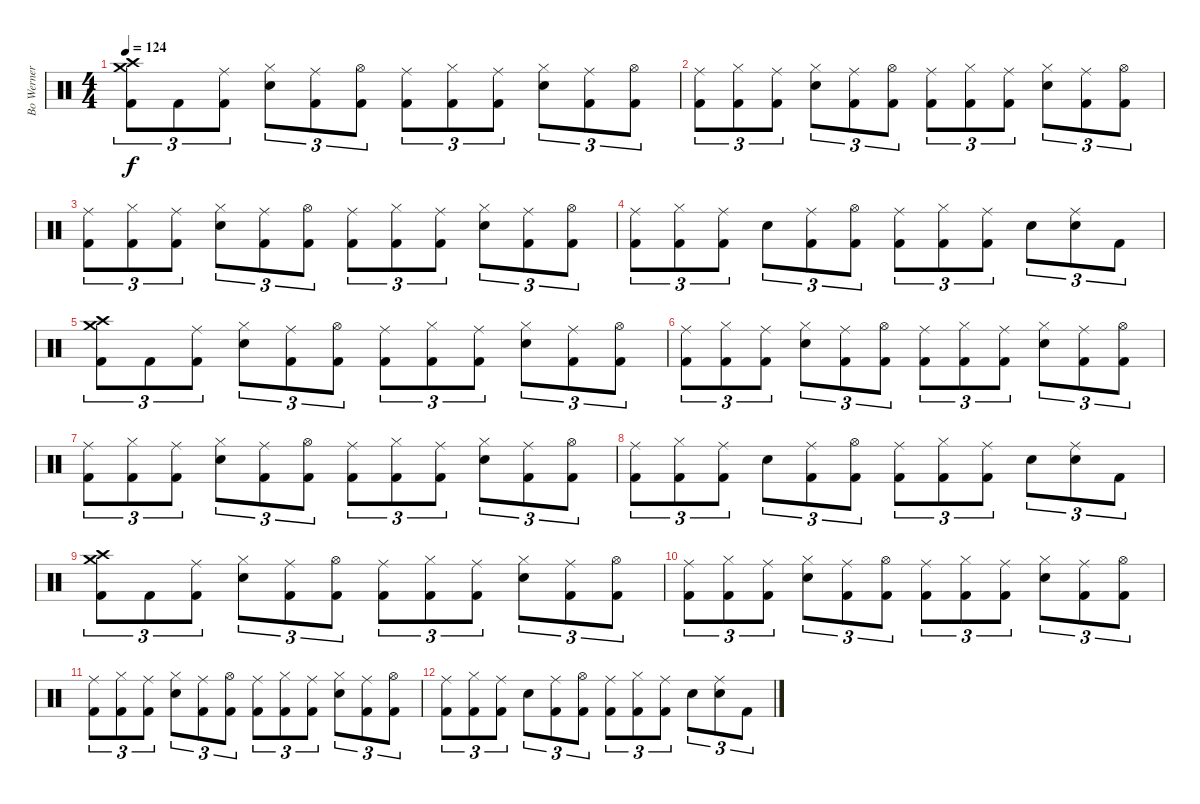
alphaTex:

\track ("Bo Werner " "Bo Werner ") {instrument percussion}
\staff {score}
\articulation defaults
\ts (4 4)
\tempo 124
\clef neutral
\ks c
("Crash medium (hit)" "Crash high (hit)" "Kick (hit) 2").8{tu (3 2) dy f} "Kick (hit) 2".8{tu (3 2)} ("Ride (middle)" "Kick (hit) 2").8{tu (3 2)} ("Hi-Hat (closed)" "Electric Snare (hit)").8{tu (3 2)} ("Ride (middle)" "Kick (hit) 2").8{tu (3 2)} ("Hi-Hat (open)" "Kick (hit) 2").8{tu (3 2)} ("Ride (middle)" "Kick (hit) 2").8{tu (3 2)} ("Hi-Hat (closed)" "Kick (hit) 2").8{tu (3 2)} ("Ride (middle)" "Kick (hit) 2").8{tu (3 2)} ("Hi-Hat (closed)" "Electric Snare (hit)").8{tu (3 2)} ("Ride (middle)" "Kick (hit) 2").8{tu (3 2)} ("Hi-Hat (open)" "Kick (hit) 2").8{tu (3 2)} |
("Ride (middle)" "Kick (hit) 2").8{tu (3 2)} ("Hi-Hat (closed)" "Kick (hit) 2").8{tu (3 2)} ("Ride (middle)" "Kick (hit) 2").8{tu (3 2)} ("Hi-Hat (closed)" "Electric Snare (hit)").8{tu (3 2)} ("Ride (middle)" "Kick (hit) 2").8{tu (3 2)} ("Hi-Hat (open)" "Kick (hit) 2").8{tu (3 2)} ("Ride (middle)" "Kick (hit) 2").8{tu (3 2)} ("Hi-Hat (closed)" "Kick (hit) 2").8{tu (3 2)} ("Ride (middle)" "Kick (hit) 2").8{tu (3 2)} ("Hi-Hat (closed)" "Electric Snare (hit)").8{tu (3 2)} ("Ride (middle)" "Kick (hit) 2").8{tu (3 2)} ("Hi-Hat (open)" "Kick (hit) 2").8{tu (3 2)} |
("Ride (middle)" "Kick (hit) 2").8{tu (3 2)} ("Hi-Hat (closed)" "Kick (hit) 2").8{tu (3 2)} ("Ride (middle)" "Kick (hit) 2").8{tu (3 2)} ("Hi-Hat (closed)" "Electric Snare (hit)").8{tu (3 2)} ("Ride (middle)" "Kick (hit) 2").8{tu (3 2)} ("Hi-Hat (open)" "Kick (hit) 2").8{tu (3 2)} ("Ride (middle)" "Kick (hit) 2").8{tu (3 2)} ("Hi-Hat (closed)" "Kick (hit) 2").8{tu (3 2)} ("Ride (middle)" "Kick (hit) 2").8{tu (3 2)} ("Hi-Hat (closed)" "Electric Snare (hit)").8{tu (3 2)} ("Ride (middle)" "Kick (hit) 2").8{tu (3 2)} ("Hi-Hat (open)" "Kick (hit) 2").8{tu (3 2)} |
("Ride (middle)" "Kick (hit) 2").8{tu (3 2)} ("Hi-Hat (closed)" "Kick (hit) 2").8{tu (3 2)} ("Ride (middle)" "Kick (hit) 2").8{tu (3 2)} "Electric Snare (hit)".8{tu (3 2)} ("Ride (middle)" "Kick (hit) 2").8{tu (3 2)} ("Hi-Hat (open)" "Kick (hit) 2").8{tu (3 2)} ("Ride (middle)" "Kick (hit) 2").8{tu (3 2)} ("Hi-Hat (closed)" "Kick (hit) 2").8{tu (3 2)} ("Ride (middle)" "Kick (hit) 2").8{tu (3 2)} "Electric Snare (hit)".8{tu (3 2)} ("Ride (middle)" "Electric Snare (hit)").8{tu (3 2)} "Kick (hit) 2".8{tu (3 2)} |
("Crash medium (hit)" "Crash high (hit)" "Kick (hit) 2").8{tu (3 2)} "Kick (hit) 2".8{tu (3 2)} ("Ride (middle)" "Kick (hit) 2").8{tu (3 2)} ("Hi-Hat (closed)" "Electric Snare (hit)").8{tu (3 2)} ("Ride (middle)" "Kick (hit) 2").8{tu (3 2)} ("Hi-Hat (open)" "Kick (hit) 2").8{tu (3 2)} ("Ride (middle)" "Kick (hit) 2").8{tu (3 2)} ("Hi-Hat (closed)" "Kick (hit) 2").8{tu (3 2)} ("Ride (middle)" "Kick (hit) 2").8{tu (3 2)} ("Hi-Hat (closed)" "Electric Snare (hit)").8{tu (3 2)} ("Ride (middle)" "Kick (hit) 2").8{tu (3 2)} ("Hi-Hat (open)" "Kick (hit) 2").8{tu (3 2)} |
("Ride (middle)" "Kick (hit) 2").8{tu (3 2)} ("Hi-Hat (closed)" "Kick (hit) 2").8{tu (3 2)} ("Ride (middle)" "Kick (hit) 2").8{tu (3 2)} ("Hi-Hat (closed)" "Electric Snare (hit)").8{tu (3 2)} ("Ride (middle)" "Kick (hit) 2").8{tu (3 2)} ("Hi-Hat (open)" "Kick (hit) 2").8{tu (3 2)} ("Ride (middle)" "Kick (hit) 2").8{tu (3 2)} ("Hi-Hat (closed)" "Kick (hit) 2").8{tu (3 2)} ("Ride (middle)" "Kick (hit) 2").8{tu (3 2)} ("Hi-Hat (closed)" "Electric Snare (hit)").8{tu (3 2)} ("Ride (middle)" "Kick (hit) 2").8{tu (3 2)} ("Hi-Hat (open)" "Kick (hit) 2").8{tu (3 2)} |
("Ride (middle)" "Kick (hit) 2").8{tu (3 2)} ("Hi-Hat (closed)" "Kick (hit) 2").8{tu (3 2)} ("Ride (middle)" "Kick (hit) 2").8{tu (3 2)} ("Hi-Hat (closed)" "Electric Snare (hit)").8{tu (3 2)} ("Ride (middle)" "Kick (hit) 2").8{tu (3 2)} ("Hi-Hat (open)" "Kick (hit) 2").8{tu (3 2)} ("Ride (middle)" "Kick (hit) 2").8{tu (3 2)} ("Hi-Hat (closed)" "Kick (hit) 2").8{tu (3 2)} ("Ride (middle)" "Kick (hit) 2").8{tu (3 2)} ("Hi-Hat (closed)" "Electric Snare (hit)").8{tu (3 2)} ("Ride (middle)" "Kick (hit) 2").8{tu (3 2)} ("Hi-Hat (open)" "Kick (hit) 2").8{tu (3 2)} |
("Ride (middle)" "Kick (hit) 2").8{tu (3 2)} ("Hi-Hat (closed)" "Kick (hit) 2").8{tu (3 2)} ("Ride (middle)" "Kick (hit) 2").8{tu (3 2)} "Electric Snare (hit)".8{tu (3 2)} ("Ride (middle)" "Kick (hit) 2").8{tu (3 2)} ("Hi-Hat (open)" "Kick (hit) 2").8{tu (3 2)} ("Ride (middle)" "Kick (hit) 2").8{tu (3 2)} ("Hi-Hat (closed)" "Kick (hit) 2").8{tu (3 2)} ("Ride (middle)" "Kick (hit) 2").8{tu (3 2)} "Electric Snare (hit)".8{tu (3 2)} ("Ride (middle)" "Electric Snare (hit)").8{tu (3 2)} "Kick (hit) 2".8{tu (3 2)} |
("Crash medium (hit)" "Crash high (hit)" "Kick (hit) 2").8{tu (3 2)} "Kick (hit) 2".8{tu (3 2)} ("Ride (middle)" "Kick (hit) 2").8{tu (3 2)} ("Hi-Hat (closed)" "Electric Snare (hit)").8{tu (3 2)} ("Ride (middle)" "Kick (hit) 2").8{tu (3 2)} ("Hi-Hat (open)" "Kick (hit) 2").8{tu (3 2)} ("Ride (middle)" "Kick (hit) 2").8{tu (3 2)} ("Hi-Hat (closed)" "Kick (hit) 2").8{tu (3 2)} ("Ride (middle)" "Kick (hit) 2").8{tu (3 2)} ("Hi-Hat (closed)" "Electric Snare (hit)").8{tu (3 2)} ("Ride (middle)" "Kick (hit) 2").8{tu (3 2)} ("Hi-Hat (open)" "Kick (hit) 2").8{tu (3 2)} |
("Ride (middle)" "Kick (hit) 2").8{tu (3 2)} ("Hi-Hat (closed)" "Kick (hit) 2").8{tu (3 2)} ("Ride (middle)" "Kick (hit) 2").8{tu (3 2)} ("Hi-Hat (closed)" "Electric Snare (hit)").8{tu (3 2)} ("Ride (middle)" "Kick (hit) 2").8{tu (3 2)} ("Hi-Hat (open)" "Kick (hit) 2").8{tu (3 2)} ("Ride (middle)" "Kick (hit) 2").8{tu (3 2)} ("Hi-Hat (closed)" "Kick (hit) 2").8{tu (3 2)} ("Ride (middle)" "Kick (hit) 2").8{tu (3 2)} ("Hi-Hat (closed)" "Electric Snare (hit)").8{tu (3 2)} ("Ride (middle)" "Kick (hit) 2").8{tu (3 2)} ("Hi-Hat (open)" "Kick (hit) 2").8{tu (3 2)} |
("Ride (middle)" "Kick (hit) 2").8{tu (3 2)} ("Hi-Hat (closed)" "Kick (hit) 2").8{tu (3 2)} ("Ride (middle)" "Kick (hit) 2").8{tu (3 2)} ("Hi-Hat (closed)" "Electric Snare (hit)").8{tu (3 2)} ("Ride (middle)" "Kick (hit) 2").8{tu (3 2)} ("Hi-Hat (open)" "Kick (hit) 2").8{tu (3 2)} ("Ride (middle)" "Kick (hit) 2").8{tu (3 2)} ("Hi-Hat (closed)" "Kick (hit) 2").8{tu (3 2)} ("Ride (middle)" "Kick (hit) 2").8{tu (3 2)} ("Hi-Hat (closed)" "Electric Snare (hit)").8{tu (3 2)} ("Ride (middle)" "Kick (hit) 2").8{tu (3 2)} ("Hi-Hat (open)" "Kick (hit) 2").8{tu (3 2)} |
("Ride (middle)" "Kick (hit) 2").8{tu (3 2)} ("Hi-Hat (closed)" "Kick (hit) 2").8{tu (3 2)} ("Ride (middle)" "Kick (hit) 2").8{tu (3 2)} "Electric Snare (hit)".8{tu (3 2)} ("Ride (middle)" "Kick (hit) 2").8{tu (3 2)} ("Hi-Hat (open)" "Kick (hit) 2").8{tu (3 2)} ("Ride (middle)" "Kick (hit) 2").8{tu (3 2)} ("Hi-Hat (closed)" "Kick (hit) 2").8{tu (3 2)} ("Ride (middle)" "Kick (hit) 2").8{tu (3 2)} "Electric Snare (hit)".8{tu (3 2)} ("Ride (middle)" "Electric Snare (hit)").8{tu (3 2)} "Kick (hit) 2".8{tu (3 2)}
